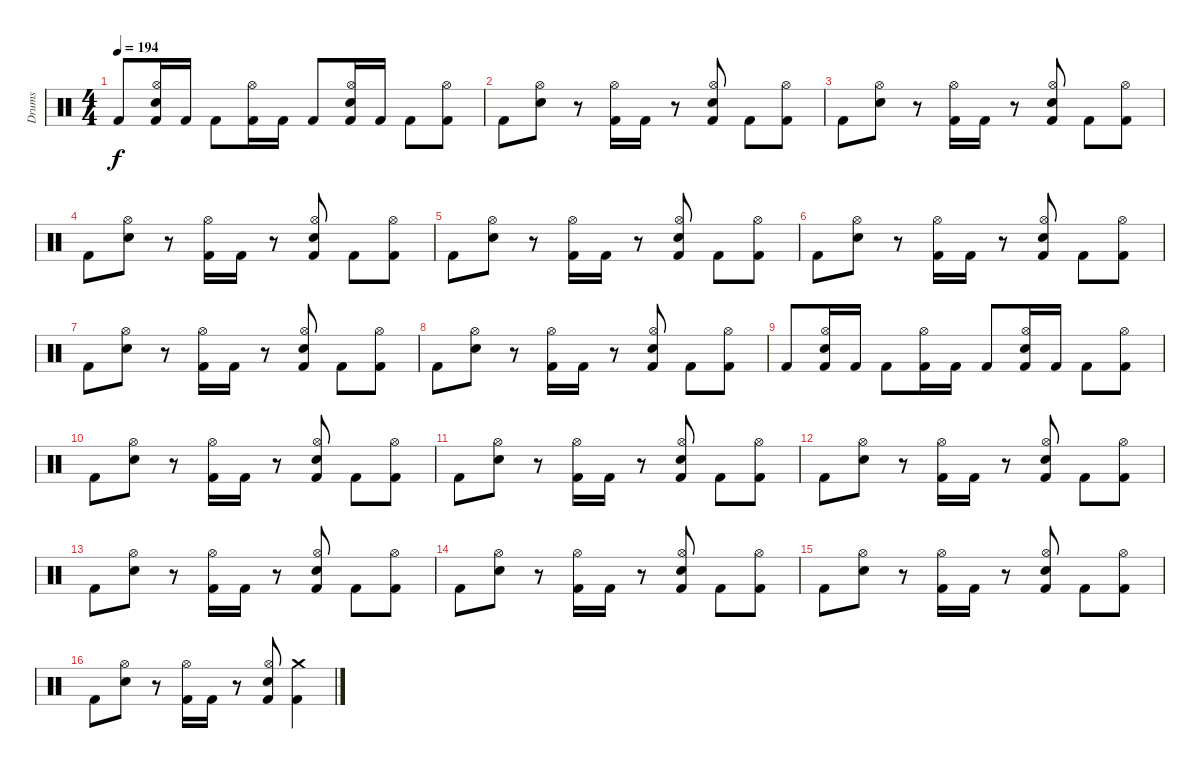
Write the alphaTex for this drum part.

\track ("Drums" "Drums") {instrument percussion}
\staff {score}
\articulation defaults
\ts (4 4)
\tempo 194
\clef neutral
\ks c "Kick (hit) 2".8{dy f}
("Hi-Hat (open)" "Electric Snare (hit)" "Kick (hit) 2").16 "Kick (hit) 2".16 "Kick (hit) 2".8 ("Hi-Hat (open)" "Kick (hit) 2").16 "Kick (hit) 2".16 "Kick (hit) 2".8 ("Hi-Hat (open)" "Electric Snare (hit)" "Kick (hit) 2").16 "Kick (hit) 2".16 "Kick (hit) 2".8 ("Hi-Hat (open)" "Kick (hit) 2").8 |
"Kick (hit) 2".8 ("Hi-Hat (open)" "Electric Snare (hit)").8 r.8 ("Hi-Hat (open)" "Kick (hit) 2").16 "Kick (hit) 2".16 r.8 ("Hi-Hat (open)" "Electric Snare (hit)" "Kick (hit) 2").8 "Kick (hit) 2".8 ("Hi-Hat (open)" "Kick (hit) 2").8 |
"Kick (hit) 2".8 ("Hi-Hat (open)" "Electric Snare (hit)").8 r.8 ("Hi-Hat (open)" "Kick (hit) 2").16 "Kick (hit) 2".16 r.8 ("Hi-Hat (open)" "Electric Snare (hit)" "Kick (hit) 2").8 "Kick (hit) 2".8 ("Hi-Hat (open)" "Kick (hit) 2").8 |
"Kick (hit) 2".8 ("Hi-Hat (open)" "Electric Snare (hit)").8 r.8 ("Hi-Hat (open)" "Kick (hit) 2").16 "Kick (hit) 2".16 r.8 ("Hi-Hat (open)" "Electric Snare (hit)" "Kick (hit) 2").8 "Kick (hit) 2".8 ("Hi-Hat (open)" "Kick (hit) 2").8 |
"Kick (hit) 2".8 ("Hi-Hat (open)" "Electric Snare (hit)").8 r.8 ("Hi-Hat (open)" "Kick (hit) 2").16 "Kick (hit) 2".16 r.8 ("Hi-Hat (open)" "Electric Snare (hit)" "Kick (hit) 2").8 "Kick (hit) 2".8 ("Hi-Hat (open)" "Kick (hit) 2").8 |
"Kick (hit) 2".8 ("Hi-Hat (open)" "Electric Snare (hit)").8 r.8 ("Hi-Hat (open)" "Kick (hit) 2").16 "Kick (hit) 2".16 r.8 ("Hi-Hat (open)" "Electric Snare (hit)" "Kick (hit) 2").8 "Kick (hit) 2".8 ("Hi-Hat (open)" "Kick (hit) 2").8 |
"Kick (hit) 2".8 ("Hi-Hat (open)" "Electric Snare (hit)").8 r.8 ("Hi-Hat (open)" "Kick (hit) 2").16 "Kick (hit) 2".16 r.8 ("Hi-Hat (open)" "Electric Snare (hit)" "Kick (hit) 2").8 "Kick (hit) 2".8 ("Hi-Hat (open)" "Kick (hit) 2").8 |
"Kick (hit) 2".8 ("Hi-Hat (open)" "Electric Snare (hit)").8 r.8 ("Hi-Hat (open)" "Kick (hit) 2").16 "Kick (hit) 2".16 r.8 ("Hi-Hat (open)" "Electric Snare (hit)" "Kick (hit) 2").8 "Kick (hit) 2".8 ("Hi-Hat (open)" "Kick (hit) 2").8 |
"Kick (hit) 2".8 ("Hi-Hat (open)" "Electric Snare (hit)" "Kick (hit) 2").16 "Kick (hit) 2".16 "Kick (hit) 2".8 ("Hi-Hat (open)" "Kick (hit) 2").16 "Kick (hit) 2".16 "Kick (hit) 2".8 ("Hi-Hat (open)" "Electric Snare (hit)" "Kick (hit) 2").16 "Kick (hit) 2".16 "Kick (hit) 2".8 ("Hi-Hat (open)" "Kick (hit) 2").8 |
"Kick (hit) 2".8 ("Hi-Hat (open)" "Electric Snare (hit)").8 r.8 ("Hi-Hat (open)" "Kick (hit) 2").16 "Kick (hit) 2".16 r.8 ("Hi-Hat (open)" "Electric Snare (hit)" "Kick (hit) 2").8 "Kick (hit) 2".8 ("Hi-Hat (open)" "Kick (hit) 2").8 |
"Kick (hit) 2".8 ("Hi-Hat (open)" "Electric Snare (hit)").8 r.8 ("Hi-Hat (open)" "Kick (hit) 2").16 "Kick (hit) 2".16 r.8 ("Hi-Hat (open)" "Electric Snare (hit)" "Kick (hit) 2").8 "Kick (hit) 2".8 ("Hi-Hat (open)" "Kick (hit) 2").8 |
"Kick (hit) 2".8 ("Hi-Hat (open)" "Electric Snare (hit)").8 r.8 ("Hi-Hat (open)" "Kick (hit) 2").16 "Kick (hit) 2".16 r.8 ("Hi-Hat (open)" "Electric Snare (hit)" "Kick (hit) 2").8 "Kick (hit) 2".8 ("Hi-Hat (open)" "Kick (hit) 2").8 |
"Kick (hit) 2".8 ("Hi-Hat (open)" "Electric Snare (hit)").8 r.8 ("Hi-Hat (open)" "Kick (hit) 2").16 "Kick (hit) 2".16 r.8 ("Hi-Hat (open)" "Electric Snare (hit)" "Kick (hit) 2").8 "Kick (hit) 2".8 ("Hi-Hat (open)" "Kick (hit) 2").8 |
"Kick (hit) 2".8 ("Hi-Hat (open)" "Electric Snare (hit)").8 r.8 ("Hi-Hat (open)" "Kick (hit) 2").16 "Kick (hit) 2".16 r.8 ("Hi-Hat (open)" "Electric Snare (hit)" "Kick (hit) 2").8 "Kick (hit) 2".8 ("Hi-Hat (open)" "Kick (hit) 2").8 |
"Kick (hit) 2".8 ("Hi-Hat (open)" "Electric Snare (hit)").8 r.8 ("Hi-Hat (open)" "Kick (hit) 2").16 "Kick (hit) 2".16 r.8 ("Hi-Hat (open)" "Electric Snare (hit)" "Kick (hit) 2").8 "Kick (hit) 2".8 ("Hi-Hat (open)" "Kick (hit) 2").8 |
"Kick (hit) 2".8 ("Hi-Hat (open)" "Electric Snare (hit)").8 r.8 ("Hi-Hat (open)" "Kick (hit) 2").16 "Kick (hit) 2".16 r.8 ("Hi-Hat (open)" "Electric Snare (hit)" "Kick (hit) 2").8 ("Crash medium (hit)" "Kick (hit) 2").4
